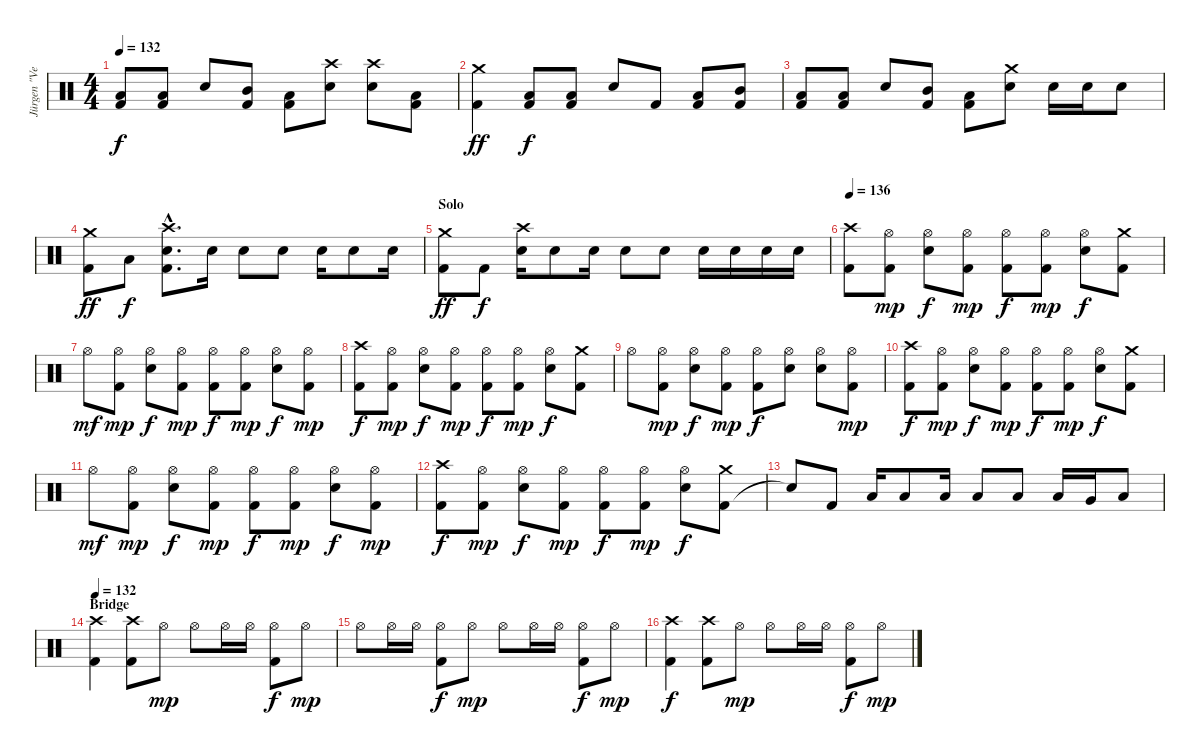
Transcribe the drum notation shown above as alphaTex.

\track ("Jürgen \"Ventor\" Reil" "Jürgen \"Ve") {instrument percussion}
\staff {score}
\articulation defaults
\ts (4 4)
\tempo 132
\clef neutral
\ks c
("Kick (hit) 2" "Low Tom (hit)").8{dy f} ("Kick (hit) 2" "Low Tom (hit)").8 "Snare (hit) 2".8 ("Kick (hit) 2" "Mid Tom (hit)").8 ("Kick (hit) 2" "Low Tom (hit)").8 ("Crash high (hit)" "Snare (hit) 2").8 ("Crash high (hit)" "Snare (hit) 2").8 ("Kick (hit) 2" "Low Tom (hit)").8 |
("Kick (hit) 2" "Crash medium (hit)").4{dy ff} ("Kick (hit) 2" "Low Tom (hit)").8{dy f} ("Kick (hit) 2" "Low Tom (hit)").8 "Snare (hit) 2".8 "Kick (hit) 2".8 ("Kick (hit) 2" "Low Tom (hit)").8 ("Kick (hit) 2" "Mid Tom (hit)").8 |
("Kick (hit) 2" "Low Tom (hit)").8 ("Kick (hit) 2" "Low Tom (hit)").8 "Snare (hit) 2".8 ("Kick (hit) 2" "Mid Tom (hit)").8 ("Kick (hit) 2" "Low Tom (hit)").8 ("Crash medium (hit)" "Snare (hit) 2").8 "Snare (hit) 2".16 "Snare (hit) 2".16 "Snare (hit) 2".8 |
("Kick (hit) 2" "Crash medium (hit)").8{dy ff} "Low Tom (hit)".8{dy f} ("Kick (hit) 2"{hac} "Crash high (hit)"{hac} "Snare (hit) 2"{hac}).8{d} "Snare (hit) 2".16 "Snare (hit) 2".8 "Snare (hit) 2".8 "Snare (hit) 2".16 "Snare (hit) 2".8 "Snare (hit) 2".16 |
\section ("" "Solo")
("Kick (hit) 2" "Crash medium (hit)").8{dy ff} "Kick (hit) 2".8{dy f} ("Crash high (hit)" "Snare (hit) 2").16 "Snare (hit) 2".8 "Snare (hit) 2".16 "Snare (hit) 2".8 "Snare (hit) 2".8 "Snare (hit) 2".16 "Snare (hit) 2".16 "Snare (hit) 2".16 "Snare (hit) 2".16 |
\tempo 136
("Kick (hit) 2" "Crash high (hit)").8 ("Kick (hit) 2" "Hi-Hat (open)").8{dy mp} ("Hi-Hat (open)" "Snare (hit) 2").8{dy f} ("Kick (hit) 2" "Hi-Hat (open)").8{dy mp} ("Kick (hit) 2" "Hi-Hat (open)").8{dy f} ("Kick (hit) 2" "Hi-Hat (open)").8{dy mp} ("Hi-Hat (open)" "Snare (hit) 2").8{dy f} ("Kick (hit) 2" "Crash medium (hit)").8 |
"Hi-Hat (open)".8{dy mf} ("Kick (hit) 2" "Hi-Hat (open)").8{dy mp} ("Hi-Hat (open)" "Snare (hit) 2").8{dy f} ("Kick (hit) 2" "Hi-Hat (open)").8{dy mp} ("Kick (hit) 2" "Hi-Hat (open)").8{dy f} ("Kick (hit) 2" "Hi-Hat (open)").8{dy mp} ("Hi-Hat (open)" "Snare (hit) 2").8{dy f} ("Kick (hit) 2" "Hi-Hat (open)").8{dy mp} |
("Kick (hit) 2" "Crash high (hit)").8{dy f} ("Kick (hit) 2" "Hi-Hat (open)").8{dy mp} ("Hi-Hat (open)" "Snare (hit) 2").8{dy f} ("Kick (hit) 2" "Hi-Hat (open)").8{dy mp} ("Kick (hit) 2" "Hi-Hat (open)").8{dy f} ("Kick (hit) 2" "Hi-Hat (open)").8{dy mp} ("Hi-Hat (open)" "Snare (hit) 2").8{dy f} ("Kick (hit) 2" "Crash medium (hit)").8 |
"Hi-Hat (open)".8 ("Kick (hit) 2" "Hi-Hat (open)").8{dy mp} ("Hi-Hat (open)" "Snare (hit) 2").8{dy f} ("Kick (hit) 2" "Hi-Hat (open)").8{dy mp} ("Kick (hit) 2" "Hi-Hat (open)").8{dy f} ("Hi-Hat (open)" "Snare (hit) 2").8 ("Hi-Hat (open)" "Snare (hit) 2").8 ("Kick (hit) 2" "Hi-Hat (open)").8{dy mp} |
("Kick (hit) 2" "Crash high (hit)").8{dy f} ("Kick (hit) 2" "Hi-Hat (open)").8{dy mp} ("Hi-Hat (open)" "Snare (hit) 2").8{dy f} ("Kick (hit) 2" "Hi-Hat (open)").8{dy mp} ("Kick (hit) 2" "Hi-Hat (open)").8{dy f} ("Kick (hit) 2" "Hi-Hat (open)").8{dy mp} ("Hi-Hat (open)" "Snare (hit) 2").8{dy f} ("Kick (hit) 2" "Crash medium (hit)").8 |
"Hi-Hat (open)".8{dy mf} ("Kick (hit) 2" "Hi-Hat (open)").8{dy mp} ("Hi-Hat (open)" "Snare (hit) 2").8{dy f} ("Kick (hit) 2" "Hi-Hat (open)").8{dy mp} ("Kick (hit) 2" "Hi-Hat (open)").8{dy f} ("Kick (hit) 2" "Hi-Hat (open)").8{dy mp} ("Hi-Hat (open)" "Snare (hit) 2").8{dy f} ("Kick (hit) 2" "Hi-Hat (open)").8{dy mp} |
("Kick (hit) 2" "Crash high (hit)").8{dy f} ("Kick (hit) 2" "Hi-Hat (open)").8{dy mp} ("Hi-Hat (open)" "Snare (hit) 2").8{dy f} ("Kick (hit) 2" "Hi-Hat (open)").8{dy mp} ("Kick (hit) 2" "Hi-Hat (open)").8{dy f} ("Kick (hit) 2" "Hi-Hat (open)").8{dy mp} ("Hi-Hat (open)" "Snare (hit) 2").8{dy f} ("Kick (hit) 2" "Crash medium (hit)").8 |
"Snare (hit)"{t}.8 "Kick (hit) 2".8 "Low Tom (hit)".16 "Low Tom (hit)".8 "Low Tom (hit)".16 "Low Tom (hit)".8 "Low Tom (hit)".8 "Low Tom (hit)".16 "Very Low Tom (hit)".16 "Low Floor Tom (hit)".8 |
\section ("" "Bridge")
\tempo 132
("Kick (hit) 2" "Crash high (hit)").4 ("Kick (hit) 2" "Crash high (hit)").8 "Hi-Hat (open)".8{dy mp} "Hi-Hat (open)".8 "Hi-Hat (open)".16 "Hi-Hat (open)".16 ("Kick (hit) 2" "Hi-Hat (open)").8{dy f} "Hi-Hat (open)".8{dy mp} |
"Hi-Hat (open)".8 "Hi-Hat (open)".16 "Hi-Hat (open)".16 ("Kick (hit) 2" "Hi-Hat (open)").8{dy f} "Hi-Hat (open)".8{dy mp} "Hi-Hat (open)".8 "Hi-Hat (open)".16 "Hi-Hat (open)".16 ("Kick (hit) 2" "Hi-Hat (open)").8{dy f} "Hi-Hat (open)".8{dy mp} |
("Kick (hit) 2" "Crash high (hit)").4{dy f} ("Kick (hit) 2" "Crash high (hit)").8 "Hi-Hat (open)".8{dy mp} "Hi-Hat (open)".8 "Hi-Hat (open)".16 "Hi-Hat (open)".16 ("Kick (hit) 2" "Hi-Hat (open)").8{dy f} "Hi-Hat (open)".8{dy mp}
